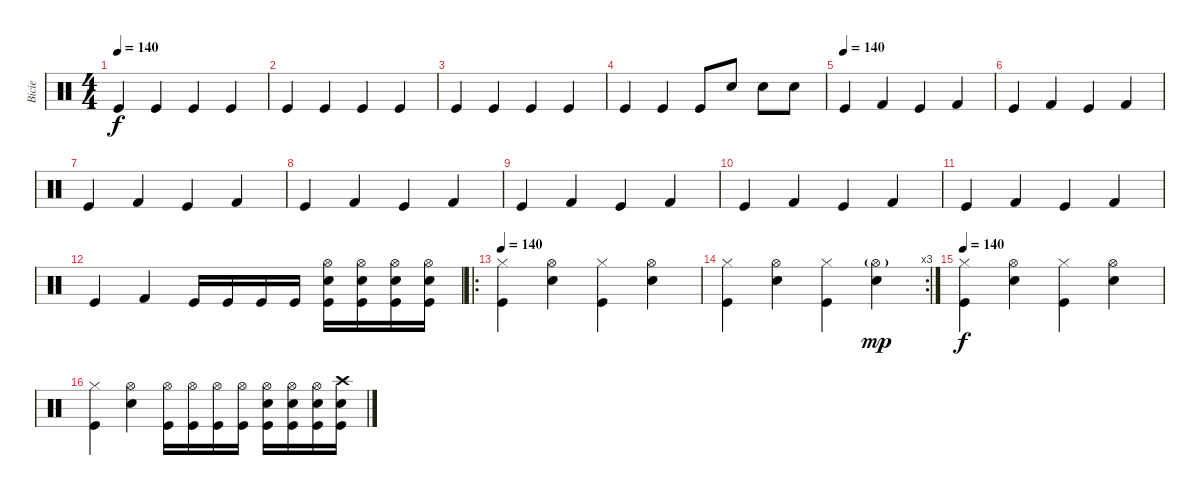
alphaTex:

\track ("Bicie" "Bicie") {instrument percussion}
\staff {score}
\articulation defaults
\ts (4 4)
\tempo 140
\clef neutral
\ks c "Kick (hit)".4{dy f} "Kick (hit)".4 "Kick (hit)".4 "Kick (hit)".4
|
"Kick (hit)".4 "Kick (hit)".4 "Kick (hit)".4 "Kick (hit)".4 |
"Kick (hit)".4 "Kick (hit)".4 "Kick (hit)".4 "Kick (hit)".4 |
"Kick (hit)".4 "Kick (hit)".4 "Kick (hit)".8 "Electric Snare (hit)".8 "Electric Snare (hit)".8 "Electric Snare (hit)".8 |
\tempo (140)
"Kick (hit)".4 "Kick (hit) 2".4 "Kick (hit)".4 "Kick (hit) 2".4 |
"Kick (hit)".4 "Kick (hit) 2".4 "Kick (hit)".4 "Kick (hit) 2".4 |
"Kick (hit)".4 "Kick (hit) 2".4 "Kick (hit)".4 "Kick (hit) 2".4 |
"Kick (hit)".4 "Kick (hit) 2".4 "Kick (hit)".4 "Kick (hit) 2".4 |
"Kick (hit)".4 "Kick (hit) 2".4 "Kick (hit)".4 "Kick (hit) 2".4 |
"Kick (hit)".4 "Kick (hit) 2".4 "Kick (hit)".4 "Kick (hit) 2".4 |
"Kick (hit)".4 "Kick (hit) 2".4 "Kick (hit)".4 "Kick (hit) 2".4 |
"Kick (hit)".4 "Kick (hit) 2".4 "Kick (hit)".16 "Kick (hit)".16 "Kick (hit)".16 "Kick (hit)".16 ("Hi-Hat (open)" "Electric Snare (hit)" "Kick (hit)").16 ("Hi-Hat (open)" "Electric Snare (hit)" "Kick (hit)").16 ("Hi-Hat (open)" "Electric Snare (hit)" "Kick (hit)").16 ("Hi-Hat (open)" "Electric Snare (hit)" "Kick (hit)").16 |
\ro
\tempo 140
("Hi-Hat (closed)" "Kick (hit)").4 ("Hi-Hat (open)" "Electric Snare (hit)").4 ("Hi-Hat (closed)" "Kick (hit)").4 ("Hi-Hat (open)" "Electric Snare (hit)").4 |
\rc 3
("Hi-Hat (closed)" "Kick (hit)").4 ("Hi-Hat (open)" "Electric Snare (hit)").4 ("Hi-Hat (closed)" "Kick (hit)").4 ("Hi-Hat (open)"{g} "Electric Snare (hit)").4{dy mp} |
\tempo 140
("Hi-Hat (closed)" "Kick (hit)").4{dy f} ("Hi-Hat (open)" "Electric Snare (hit)").4 ("Hi-Hat (closed)" "Kick (hit)").4 ("Hi-Hat (open)" "Electric Snare (hit)").4 |
("Hi-Hat (closed)" "Kick (hit)").4 ("Hi-Hat (open)" "Electric Snare (hit)").4 ("Hi-Hat (open)" "Kick (hit)").16 ("Hi-Hat (open)" "Kick (hit)").16 ("Hi-Hat (open)" "Kick (hit)").16 ("Hi-Hat (open)" "Kick (hit)").16 ("Hi-Hat (open)" "Electric Snare (hit)" "Kick (hit)").16 ("Hi-Hat (open)" "Electric Snare (hit)" "Kick (hit)").16 ("Hi-Hat (open)" "Electric Snare (hit)" "Kick (hit)").16 ("Crash high (hit)" "Electric Snare (hit)" "Kick (hit)").16
